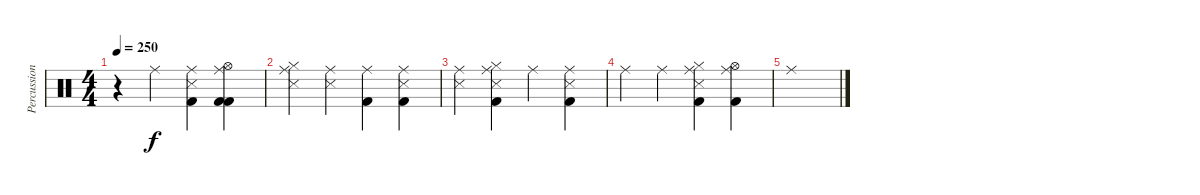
\track ("Percussion" "Percussion") {instrument percussion}
\staff {score}
\articulation defaults
\ts (4 4)
\tempo 250
\clef neutral
\ks c
r.4{dy f} "Ride (middle)".4 ("Kick (hit) 2" "Snare (side stick) 3" "Ride (middle)").4 ("Kick (hit) 2" "Kick (hit) 2" "Ride (middle)" "Hi-Hat (open)").4 |
("Snare (side stick) 3" "Ride (middle)" "Hi-Hat (closed)").4 ("Snare (side stick) 3" "Ride (middle)").4 ("Kick (hit) 2" "Ride (middle)").4 ("Kick (hit) 2" "Snare (side stick) 3" "Ride (middle)").4 |
("Snare (side stick) 3" "Ride (middle)").4 ("Kick (hit) 2" "Snare (side stick) 3" "Ride (middle)" "Hi-Hat (closed)").4 "Ride (middle)".4 ("Kick (hit) 2" "Snare (side stick) 3" "Ride (middle)").4 |
"Ride (middle)".4 "Ride (middle)".4 ("Kick (hit) 2" "Snare (side stick) 3" "Ride (middle)" "Hi-Hat (closed)").4 ("Kick (hit) 2" "Ride (middle)" "Hi-Hat (open)").4 |
"Ride (middle)".1
